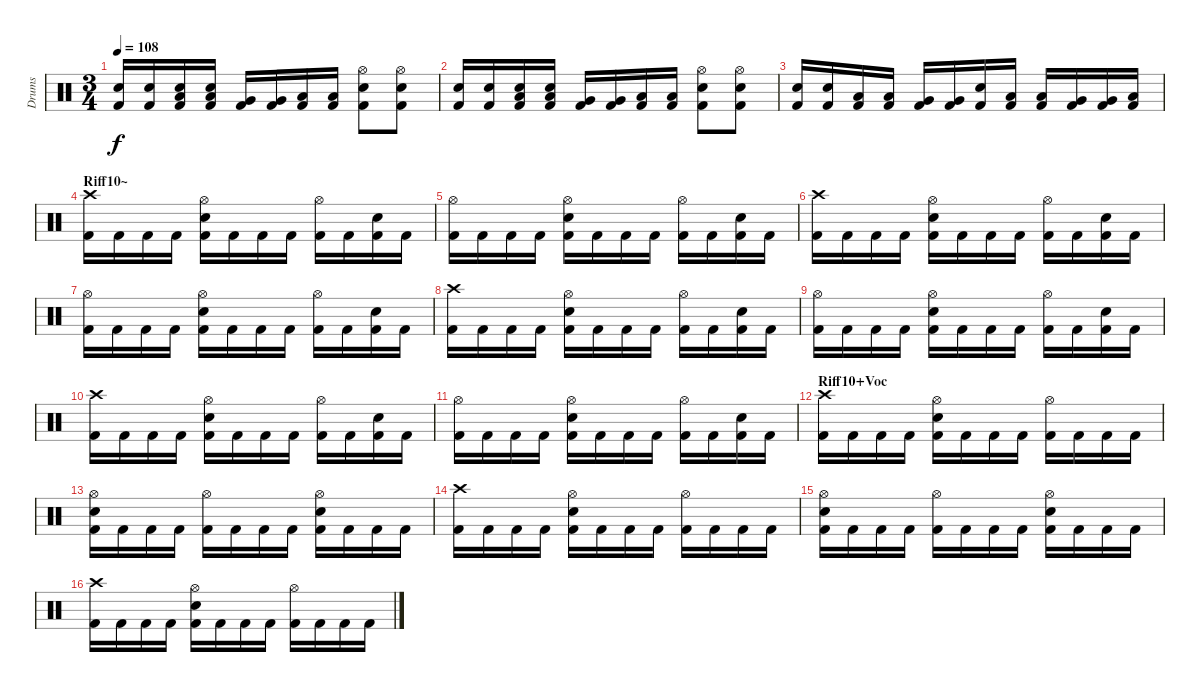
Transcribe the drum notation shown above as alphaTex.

\track ("Drums" "Drums") {instrument percussion}
\staff {score}
\articulation defaults
\ts (3 4)
\tempo 108
\clef neutral
\ks c
("Snare (hit) 2" "Kick (hit) 2").16{dy f} ("Snare (hit) 2" "Kick (hit) 2").16 ("Snare (hit) 2" "Low Tom (hit)" "Kick (hit) 2").16 ("Snare (hit) 2" "Low Tom (hit)" "Kick (hit) 2").16 ("Very Low Tom (hit)" "Kick (hit) 2").16 ("Very Low Tom (hit)" "Kick (hit) 2").16 ("Low Floor Tom (hit)" "Kick (hit) 2").16 ("Low Floor Tom (hit)" "Kick (hit) 2").16 ("Hi-Hat (open)" "Snare (hit) 2" "Kick (hit) 2").8 ("Hi-Hat (open)" "Snare (hit) 2" "Kick (hit) 2").8 |
("Snare (hit) 2" "Kick (hit) 2").16 ("Snare (hit) 2" "Kick (hit) 2").16 ("Snare (hit) 2" "Low Tom (hit)" "Kick (hit) 2").16 ("Snare (hit) 2" "Low Tom (hit)" "Kick (hit) 2").16 ("Very Low Tom (hit)" "Kick (hit) 2").16 ("Very Low Tom (hit)" "Kick (hit) 2").16 ("Low Floor Tom (hit)" "Kick (hit) 2").16 ("Low Floor Tom (hit)" "Kick (hit) 2").16 ("Hi-Hat (open)" "Snare (hit) 2" "Kick (hit) 2").8 ("Hi-Hat (open)" "Snare (hit) 2" "Kick (hit) 2").8 |
("Snare (hit) 2" "Kick (hit) 2").16 ("Snare (hit) 2" "Kick (hit) 2").16 ("Low Tom (hit)" "Kick (hit) 2").16 ("Low Tom (hit)" "Kick (hit) 2").16 ("Very Low Tom (hit)" "Kick (hit) 2").16 ("Very Low Tom (hit)" "Kick (hit) 2").16 ("Snare (hit) 2" "Kick (hit) 2").16 ("Low Tom (hit)" "Kick (hit) 2").16 ("Low Tom (hit)" "Kick (hit) 2").16 ("Very Low Tom (hit)" "Kick (hit) 2").16 ("Very Low Tom (hit)" "Kick (hit) 2").16 ("Low Floor Tom (hit)" "Kick (hit) 2").16 |
\section ("" "Riff10~")
("Crash high (hit)" "Kick (hit) 2").16 "Kick (hit) 2".16 "Kick (hit) 2".16 "Kick (hit) 2".16 ("Snare (hit) 2" "Hi-Hat (open)" "Kick (hit) 2").16 "Kick (hit) 2".16 "Kick (hit) 2".16 "Kick (hit) 2".16 ("Hi-Hat (open)" "Kick (hit) 2").16 "Kick (hit) 2".16 ("Snare (hit) 2" "Kick (hit) 2").16 "Kick (hit) 2".16 |
("Hi-Hat (open)" "Kick (hit) 2").16 "Kick (hit) 2".16 "Kick (hit) 2".16 "Kick (hit) 2".16 ("Snare (hit) 2" "Hi-Hat (open)" "Kick (hit) 2").16 "Kick (hit) 2".16 "Kick (hit) 2".16 "Kick (hit) 2".16 ("Hi-Hat (open)" "Kick (hit) 2").16 "Kick (hit) 2".16 ("Snare (hit) 2" "Kick (hit) 2").16 "Kick (hit) 2".16 |
("Crash high (hit)" "Kick (hit) 2").16 "Kick (hit) 2".16 "Kick (hit) 2".16 "Kick (hit) 2".16 ("Snare (hit) 2" "Hi-Hat (open)" "Kick (hit) 2").16 "Kick (hit) 2".16 "Kick (hit) 2".16 "Kick (hit) 2".16 ("Hi-Hat (open)" "Kick (hit) 2").16 "Kick (hit) 2".16 ("Snare (hit) 2" "Kick (hit) 2").16 "Kick (hit) 2".16 |
("Hi-Hat (open)" "Kick (hit) 2").16 "Kick (hit) 2".16 "Kick (hit) 2".16 "Kick (hit) 2".16 ("Snare (hit) 2" "Hi-Hat (open)" "Kick (hit) 2").16 "Kick (hit) 2".16 "Kick (hit) 2".16 "Kick (hit) 2".16 ("Hi-Hat (open)" "Kick (hit) 2").16 "Kick (hit) 2".16 ("Snare (hit) 2" "Kick (hit) 2").16 "Kick (hit) 2".16 |
("Crash high (hit)" "Kick (hit) 2").16 "Kick (hit) 2".16 "Kick (hit) 2".16 "Kick (hit) 2".16 ("Snare (hit) 2" "Hi-Hat (open)" "Kick (hit) 2").16 "Kick (hit) 2".16 "Kick (hit) 2".16 "Kick (hit) 2".16 ("Hi-Hat (open)" "Kick (hit) 2").16 "Kick (hit) 2".16 ("Snare (hit) 2" "Kick (hit) 2").16 "Kick (hit) 2".16 |
("Hi-Hat (open)" "Kick (hit) 2").16 "Kick (hit) 2".16 "Kick (hit) 2".16 "Kick (hit) 2".16 ("Snare (hit) 2" "Hi-Hat (open)" "Kick (hit) 2").16 "Kick (hit) 2".16 "Kick (hit) 2".16 "Kick (hit) 2".16 ("Hi-Hat (open)" "Kick (hit) 2").16 "Kick (hit) 2".16 ("Snare (hit) 2" "Kick (hit) 2").16 "Kick (hit) 2".16 |
("Crash high (hit)" "Kick (hit) 2").16 "Kick (hit) 2".16 "Kick (hit) 2".16 "Kick (hit) 2".16 ("Snare (hit) 2" "Hi-Hat (open)" "Kick (hit) 2").16 "Kick (hit) 2".16 "Kick (hit) 2".16 "Kick (hit) 2".16 ("Hi-Hat (open)" "Kick (hit) 2").16 "Kick (hit) 2".16 ("Snare (hit) 2" "Kick (hit) 2").16 "Kick (hit) 2".16 |
("Hi-Hat (open)" "Kick (hit) 2").16 "Kick (hit) 2".16 "Kick (hit) 2".16 "Kick (hit) 2".16 ("Snare (hit) 2" "Hi-Hat (open)" "Kick (hit) 2").16 "Kick (hit) 2".16 "Kick (hit) 2".16 "Kick (hit) 2".16 ("Hi-Hat (open)" "Kick (hit) 2").16 "Kick (hit) 2".16 ("Snare (hit) 2" "Kick (hit) 2").16 "Kick (hit) 2".16 |
\section ("" "Riff10+Voc")
("Crash high (hit)" "Kick (hit) 2").16 "Kick (hit) 2".16 "Kick (hit) 2".16 "Kick (hit) 2".16 ("Snare (hit) 2" "Hi-Hat (open)" "Kick (hit) 2").16 "Kick (hit) 2".16 "Kick (hit) 2".16 "Kick (hit) 2".16 ("Hi-Hat (open)" "Kick (hit) 2").16 "Kick (hit) 2".16 "Kick (hit) 2".16 "Kick (hit) 2".16 |
("Snare (hit) 2" "Hi-Hat (open)" "Kick (hit) 2").16 "Kick (hit) 2".16 "Kick (hit) 2".16 "Kick (hit) 2".16 ("Hi-Hat (open)" "Kick (hit) 2").16 "Kick (hit) 2".16 "Kick (hit) 2".16 "Kick (hit) 2".16 ("Snare (hit) 2" "Hi-Hat (open)" "Kick (hit) 2").16 "Kick (hit) 2".16 "Kick (hit) 2".16 "Kick (hit) 2".16 |
("Crash high (hit)" "Kick (hit) 2").16 "Kick (hit) 2".16 "Kick (hit) 2".16 "Kick (hit) 2".16 ("Snare (hit) 2" "Hi-Hat (open)" "Kick (hit) 2").16 "Kick (hit) 2".16 "Kick (hit) 2".16 "Kick (hit) 2".16 ("Hi-Hat (open)" "Kick (hit) 2").16 "Kick (hit) 2".16 "Kick (hit) 2".16 "Kick (hit) 2".16 |
("Snare (hit) 2" "Hi-Hat (open)" "Kick (hit) 2").16 "Kick (hit) 2".16 "Kick (hit) 2".16 "Kick (hit) 2".16 ("Hi-Hat (open)" "Kick (hit) 2").16 "Kick (hit) 2".16 "Kick (hit) 2".16 "Kick (hit) 2".16 ("Snare (hit) 2" "Hi-Hat (open)" "Kick (hit) 2").16 "Kick (hit) 2".16 "Kick (hit) 2".16 "Kick (hit) 2".16 |
("Crash high (hit)" "Kick (hit) 2").16 "Kick (hit) 2".16 "Kick (hit) 2".16 "Kick (hit) 2".16 ("Snare (hit) 2" "Hi-Hat (open)" "Kick (hit) 2").16 "Kick (hit) 2".16 "Kick (hit) 2".16 "Kick (hit) 2".16 ("Hi-Hat (open)" "Kick (hit) 2").16 "Kick (hit) 2".16 "Kick (hit) 2".16 "Kick (hit) 2".16
